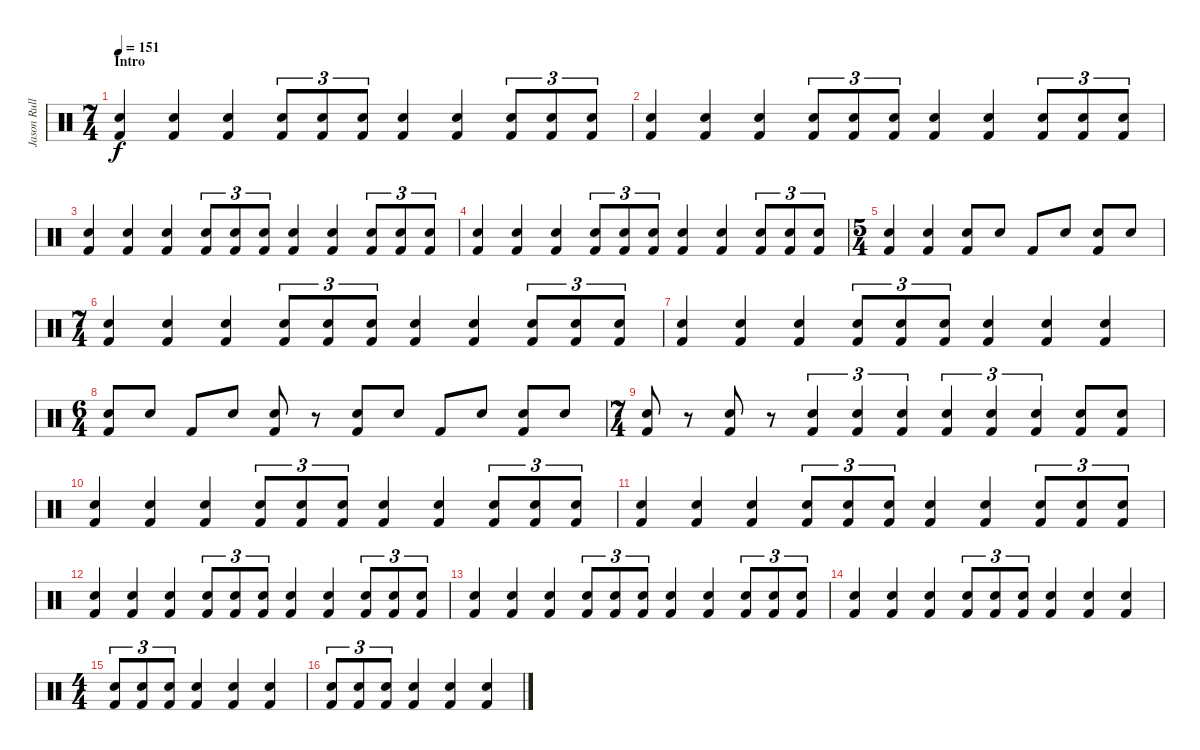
\track ("Jason Rullo" "Jason Rull") {instrument percussion}
\staff {score}
\articulation defaults
\ts (7 4)
\section ("" "Intro")
\tempo 151
\tempo 128
\tempo 151
\clef neutral
\ks c
("Kick (hit) 2" "Electric Snare (hit)").4{dy f} ("Kick (hit) 2" "Electric Snare (hit)").4 ("Kick (hit) 2" "Electric Snare (hit)").4 ("Kick (hit) 2" "Electric Snare (hit)").8{tu (3 2)} ("Kick (hit) 2" "Electric Snare (hit)").8{tu (3 2)} ("Kick (hit) 2" "Electric Snare (hit)").8{tu (3 2)} ("Kick (hit) 2" "Electric Snare (hit)").4 ("Kick (hit) 2" "Electric Snare (hit)").4 ("Kick (hit) 2" "Electric Snare (hit)").8{tu (3 2)} ("Kick (hit) 2" "Electric Snare (hit)").8{tu (3 2)} ("Kick (hit) 2" "Electric Snare (hit)").8{tu (3 2)} |
("Kick (hit) 2" "Electric Snare (hit)").4 ("Kick (hit) 2" "Electric Snare (hit)").4 ("Kick (hit) 2" "Electric Snare (hit)").4 ("Kick (hit) 2" "Electric Snare (hit)").8{tu (3 2)} ("Kick (hit) 2" "Electric Snare (hit)").8{tu (3 2)} ("Kick (hit) 2" "Electric Snare (hit)").8{tu (3 2)} ("Kick (hit) 2" "Electric Snare (hit)").4 ("Kick (hit) 2" "Electric Snare (hit)").4 ("Kick (hit) 2" "Electric Snare (hit)").8{tu (3 2)} ("Kick (hit) 2" "Electric Snare (hit)").8{tu (3 2)} ("Kick (hit) 2" "Electric Snare (hit)").8{tu (3 2)} |
("Kick (hit) 2" "Electric Snare (hit)").4 ("Kick (hit) 2" "Electric Snare (hit)").4 ("Kick (hit) 2" "Electric Snare (hit)").4 ("Kick (hit) 2" "Electric Snare (hit)").8{tu (3 2)} ("Kick (hit) 2" "Electric Snare (hit)").8{tu (3 2)} ("Kick (hit) 2" "Electric Snare (hit)").8{tu (3 2)} ("Kick (hit) 2" "Electric Snare (hit)").4 ("Kick (hit) 2" "Electric Snare (hit)").4 ("Kick (hit) 2" "Electric Snare (hit)").8{tu (3 2)} ("Kick (hit) 2" "Electric Snare (hit)").8{tu (3 2)} ("Kick (hit) 2" "Electric Snare (hit)").8{tu (3 2)} |
("Kick (hit) 2" "Electric Snare (hit)").4 ("Kick (hit) 2" "Electric Snare (hit)").4 ("Kick (hit) 2" "Electric Snare (hit)").4 ("Kick (hit) 2" "Electric Snare (hit)").8{tu (3 2)} ("Kick (hit) 2" "Electric Snare (hit)").8{tu (3 2)} ("Kick (hit) 2" "Electric Snare (hit)").8{tu (3 2)} ("Kick (hit) 2" "Electric Snare (hit)").4 ("Kick (hit) 2" "Electric Snare (hit)").4 ("Kick (hit) 2" "Electric Snare (hit)").8{tu (3 2)} ("Kick (hit) 2" "Electric Snare (hit)").8{tu (3 2)} ("Kick (hit) 2" "Electric Snare (hit)").8{tu (3 2)} |
\ts (5 4)
("Kick (hit) 2" "Electric Snare (hit)").4 ("Kick (hit) 2" "Electric Snare (hit)").4 ("Kick (hit) 2" "Electric Snare (hit)").8 "Electric Snare (hit)".8 "Kick (hit) 2".8 "Electric Snare (hit)".8 ("Kick (hit) 2" "Electric Snare (hit)").8 "Electric Snare (hit)".8 |
\ts (7 4)
("Kick (hit) 2" "Electric Snare (hit)").4 ("Kick (hit) 2" "Electric Snare (hit)").4 ("Kick (hit) 2" "Electric Snare (hit)").4 ("Kick (hit) 2" "Electric Snare (hit)").8{tu (3 2)} ("Kick (hit) 2" "Electric Snare (hit)").8{tu (3 2)} ("Kick (hit) 2" "Electric Snare (hit)").8{tu (3 2)} ("Kick (hit) 2" "Electric Snare (hit)").4 ("Kick (hit) 2" "Electric Snare (hit)").4 ("Kick (hit) 2" "Electric Snare (hit)").8{tu (3 2)} ("Kick (hit) 2" "Electric Snare (hit)").8{tu (3 2)} ("Kick (hit) 2" "Electric Snare (hit)").8{tu (3 2)} |
("Kick (hit) 2" "Electric Snare (hit)").4 ("Kick (hit) 2" "Electric Snare (hit)").4 ("Kick (hit) 2" "Electric Snare (hit)").4 ("Kick (hit) 2" "Electric Snare (hit)").8{tu (3 2)} ("Kick (hit) 2" "Electric Snare (hit)").8{tu (3 2)} ("Kick (hit) 2" "Electric Snare (hit)").8{tu (3 2)} ("Kick (hit) 2" "Electric Snare (hit)").4 ("Kick (hit) 2" "Electric Snare (hit)").4 ("Kick (hit) 2" "Electric Snare (hit)").4 |
\ts (6 4)
("Kick (hit) 2" "Electric Snare (hit)").8 "Electric Snare (hit)".8 "Kick (hit) 2".8 "Electric Snare (hit)".8 ("Electric Snare (hit)" "Kick (hit) 2").8 r.8 ("Electric Snare (hit)" "Kick (hit) 2").8 "Electric Snare (hit)".8 "Kick (hit) 2".8 "Electric Snare (hit)".8 ("Electric Snare (hit)" "Kick (hit) 2").8 "Electric Snare (hit)".8 |
\ts (7 4)
("Kick (hit) 2" "Electric Snare (hit)").8 r.8 ("Kick (hit) 2" "Electric Snare (hit)").8 r.8 ("Kick (hit) 2" "Electric Snare (hit)").4{tu (3 2)} ("Kick (hit) 2" "Electric Snare (hit)").4{tu (3 2)} ("Kick (hit) 2" "Electric Snare (hit)").4{tu (3 2)} ("Kick (hit) 2" "Electric Snare (hit)").4{tu (3 2)} ("Kick (hit) 2" "Electric Snare (hit)").4{tu (3 2)} ("Kick (hit) 2" "Electric Snare (hit)").4{tu (3 2)} ("Kick (hit) 2" "Electric Snare (hit)").8 ("Kick (hit) 2" "Electric Snare (hit)").8 |
("Kick (hit) 2" "Electric Snare (hit)").4 ("Kick (hit) 2" "Electric Snare (hit)").4 ("Kick (hit) 2" "Electric Snare (hit)").4 ("Kick (hit) 2" "Electric Snare (hit)").8{tu (3 2)} ("Kick (hit) 2" "Electric Snare (hit)").8{tu (3 2)} ("Kick (hit) 2" "Electric Snare (hit)").8{tu (3 2)} ("Kick (hit) 2" "Electric Snare (hit)").4 ("Kick (hit) 2" "Electric Snare (hit)").4 ("Kick (hit) 2" "Electric Snare (hit)").8{tu (3 2)} ("Kick (hit) 2" "Electric Snare (hit)").8{tu (3 2)} ("Kick (hit) 2" "Electric Snare (hit)").8{tu (3 2)} |
("Kick (hit) 2" "Electric Snare (hit)").4 ("Kick (hit) 2" "Electric Snare (hit)").4 ("Kick (hit) 2" "Electric Snare (hit)").4 ("Kick (hit) 2" "Electric Snare (hit)").8{tu (3 2)} ("Kick (hit) 2" "Electric Snare (hit)").8{tu (3 2)} ("Kick (hit) 2" "Electric Snare (hit)").8{tu (3 2)} ("Kick (hit) 2" "Electric Snare (hit)").4 ("Kick (hit) 2" "Electric Snare (hit)").4 ("Kick (hit) 2" "Electric Snare (hit)").8{tu (3 2)} ("Kick (hit) 2" "Electric Snare (hit)").8{tu (3 2)} ("Kick (hit) 2" "Electric Snare (hit)").8{tu (3 2)} |
("Kick (hit) 2" "Electric Snare (hit)").4 ("Kick (hit) 2" "Electric Snare (hit)").4 ("Kick (hit) 2" "Electric Snare (hit)").4 ("Kick (hit) 2" "Electric Snare (hit)").8{tu (3 2)} ("Kick (hit) 2" "Electric Snare (hit)").8{tu (3 2)} ("Kick (hit) 2" "Electric Snare (hit)").8{tu (3 2)} ("Kick (hit) 2" "Electric Snare (hit)").4 ("Kick (hit) 2" "Electric Snare (hit)").4 ("Kick (hit) 2" "Electric Snare (hit)").8{tu (3 2)} ("Kick (hit) 2" "Electric Snare (hit)").8{tu (3 2)} ("Kick (hit) 2" "Electric Snare (hit)").8{tu (3 2)} |
("Kick (hit) 2" "Electric Snare (hit)").4 ("Kick (hit) 2" "Electric Snare (hit)").4 ("Kick (hit) 2" "Electric Snare (hit)").4 ("Kick (hit) 2" "Electric Snare (hit)").8{tu (3 2)} ("Kick (hit) 2" "Electric Snare (hit)").8{tu (3 2)} ("Kick (hit) 2" "Electric Snare (hit)").8{tu (3 2)} ("Kick (hit) 2" "Electric Snare (hit)").4 ("Kick (hit) 2" "Electric Snare (hit)").4 ("Kick (hit) 2" "Electric Snare (hit)").8{tu (3 2)} ("Kick (hit) 2" "Electric Snare (hit)").8{tu (3 2)} ("Kick (hit) 2" "Electric Snare (hit)").8{tu (3 2)} |
("Kick (hit) 2" "Electric Snare (hit)").4 ("Kick (hit) 2" "Electric Snare (hit)").4 ("Kick (hit) 2" "Electric Snare (hit)").4 ("Kick (hit) 2" "Electric Snare (hit)").8{tu (3 2)} ("Kick (hit) 2" "Electric Snare (hit)").8{tu (3 2)} ("Kick (hit) 2" "Electric Snare (hit)").8{tu (3 2)} ("Kick (hit) 2" "Electric Snare (hit)").4 ("Kick (hit) 2" "Electric Snare (hit)").4 ("Electric Snare (hit)" "Kick (hit) 2").4 |
\ts (4 4)
("Kick (hit) 2" "Electric Snare (hit)").8{tu (3 2)} ("Kick (hit) 2" "Electric Snare (hit)").8{tu (3 2)} ("Kick (hit) 2" "Electric Snare (hit)").8{tu (3 2)} ("Kick (hit) 2" "Electric Snare (hit)").4 ("Kick (hit) 2" "Electric Snare (hit)").4 ("Kick (hit) 2" "Electric Snare (hit)").4 |
("Kick (hit) 2" "Electric Snare (hit)").8{tu (3 2)} ("Kick (hit) 2" "Electric Snare (hit)").8{tu (3 2)} ("Kick (hit) 2" "Electric Snare (hit)").8{tu (3 2)} ("Kick (hit) 2" "Electric Snare (hit)").4 ("Kick (hit) 2" "Electric Snare (hit)").4 ("Kick (hit) 2" "Electric Snare (hit)").4
